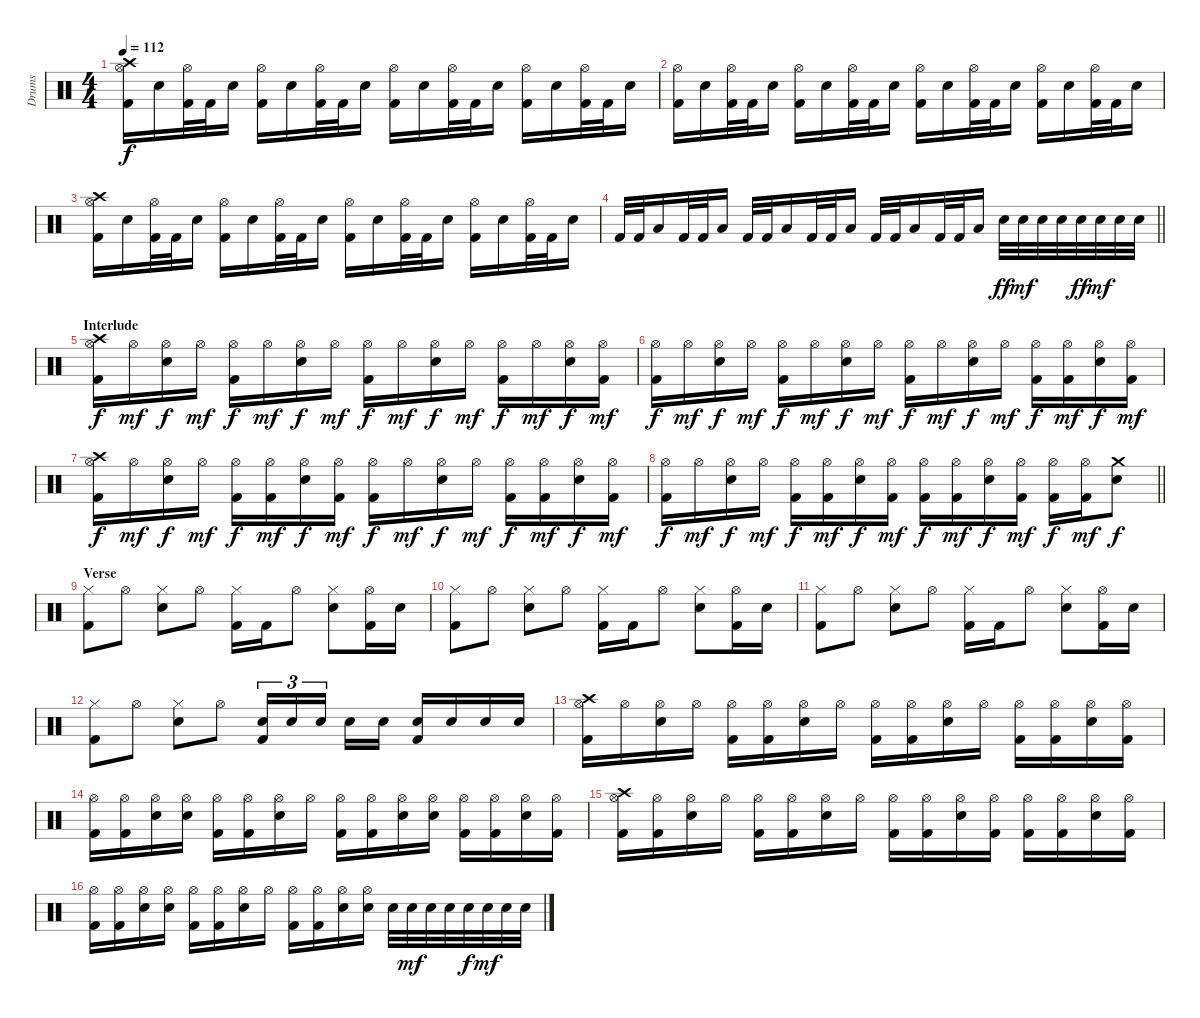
\track ("Drums" "Drums") {instrument percussion}
\staff {score}
\articulation defaults
\ts (4 4)
\tempo 112
\clef neutral
\ks c
("Crash high (hit)" "Hi-Hat (open)" "Kick (hit) 2").16{dy f} "Electric Snare (hit)".16 ("Hi-Hat (open)" "Kick (hit) 2").32 "Kick (hit) 2".32 "Electric Snare (hit)".16 ("Hi-Hat (open)" "Kick (hit) 2").16 "Electric Snare (hit)".16 ("Hi-Hat (open)" "Kick (hit) 2").32 "Kick (hit) 2".32 "Electric Snare (hit)".16 ("Hi-Hat (open)" "Kick (hit) 2").16 "Electric Snare (hit)".16 ("Hi-Hat (open)" "Kick (hit) 2").32 "Kick (hit) 2".32 "Electric Snare (hit)".16 ("Hi-Hat (open)" "Kick (hit) 2").16 "Electric Snare (hit)".16 ("Hi-Hat (open)" "Kick (hit) 2").32 "Kick (hit) 2".32 "Electric Snare (hit)".16 |
("Hi-Hat (open)" "Kick (hit) 2").16 "Electric Snare (hit)".16 ("Hi-Hat (open)" "Kick (hit) 2").32 "Kick (hit) 2".32 "Electric Snare (hit)".16 ("Hi-Hat (open)" "Kick (hit) 2").16 "Electric Snare (hit)".16 ("Hi-Hat (open)" "Kick (hit) 2").32 "Kick (hit) 2".32 "Electric Snare (hit)".16 ("Hi-Hat (open)" "Kick (hit) 2").16 "Electric Snare (hit)".16 ("Hi-Hat (open)" "Kick (hit) 2").32 "Kick (hit) 2".32 "Electric Snare (hit)".16 ("Hi-Hat (open)" "Kick (hit) 2").16 "Electric Snare (hit)".16 ("Hi-Hat (open)" "Kick (hit) 2").32 "Kick (hit) 2".32 "Electric Snare (hit)".16 |
("Crash high (hit)" "Hi-Hat (open)" "Kick (hit) 2").16 "Electric Snare (hit)".16 ("Hi-Hat (open)" "Kick (hit) 2").32 "Kick (hit) 2".32 "Electric Snare (hit)".16 ("Hi-Hat (open)" "Kick (hit) 2").16 "Electric Snare (hit)".16 ("Hi-Hat (open)" "Kick (hit) 2").32 "Kick (hit) 2".32 "Electric Snare (hit)".16 ("Hi-Hat (open)" "Kick (hit) 2").16 "Electric Snare (hit)".16 ("Hi-Hat (open)" "Kick (hit) 2").32 "Kick (hit) 2".32 "Electric Snare (hit)".16 ("Hi-Hat (open)" "Kick (hit) 2").16 "Electric Snare (hit)".16 ("Hi-Hat (open)" "Kick (hit) 2").32 "Kick (hit) 2".32 "Electric Snare (hit)".16 |
\barLineRight lightlight "Kick (hit) 2".32 "Kick (hit) 2".32 "Low Tom (hit)".16 "Kick (hit) 2".32 "Kick (hit) 2".32 "Low Tom (hit)".16 "Kick (hit) 2".32 "Kick (hit) 2".32 "Low Tom (hit)".16 "Kick (hit) 2".32 "Kick (hit) 2".32 "Low Tom (hit)".16 "Kick (hit) 2".32 "Kick (hit) 2".32 "Low Tom (hit)".16 "Kick (hit) 2".32 "Kick (hit) 2".32 "Low Tom (hit)".16 "Electric Snare (hit)".32{dy ff} "Electric Snare (hit)".32{dy mf} "Electric Snare (hit)".32 "Electric Snare (hit)".32 "Electric Snare (hit)".32{dy ff} "Electric Snare (hit)".32{dy mf} "Electric Snare (hit)".32 "Electric Snare (hit)".32
|
\section ("" "Interlude")
("Crash high (hit)" "Hi-Hat (open)" "Kick (hit) 2").16{dy f} "Hi-Hat (open)".16{dy mf} ("Hi-Hat (open)" "Electric Snare (hit)").16{dy f} "Hi-Hat (open)".16{dy mf} ("Hi-Hat (open)" "Kick (hit) 2").16{dy f} "Hi-Hat (open)".16{dy mf} ("Hi-Hat (open)" "Electric Snare (hit)").16{dy f} "Hi-Hat (open)".16{dy mf} ("Hi-Hat (open)" "Kick (hit) 2").16{dy f} "Hi-Hat (open)".16{dy mf} ("Hi-Hat (open)" "Electric Snare (hit)").16{dy f} "Hi-Hat (open)".16{dy mf} ("Hi-Hat (open)" "Kick (hit) 2").16{dy f} "Hi-Hat (open)".16{dy mf} ("Hi-Hat (open)" "Electric Snare (hit)").16{dy f} ("Hi-Hat (open)" "Kick (hit) 2").16{dy mf} |
("Hi-Hat (open)" "Kick (hit) 2").16{dy f} "Hi-Hat (open)".16{dy mf} ("Hi-Hat (open)" "Electric Snare (hit)").16{dy f} "Hi-Hat (open)".16{dy mf} ("Hi-Hat (open)" "Kick (hit) 2").16{dy f} "Hi-Hat (open)".16{dy mf} ("Hi-Hat (open)" "Electric Snare (hit)").16{dy f} "Hi-Hat (open)".16{dy mf} ("Hi-Hat (open)" "Kick (hit) 2").16{dy f} "Hi-Hat (open)".16{dy mf} ("Hi-Hat (open)" "Electric Snare (hit)").16{dy f} "Hi-Hat (open)".16{dy mf} ("Hi-Hat (open)" "Kick (hit) 2").16{dy f} ("Hi-Hat (open)" "Kick (hit) 2").16{dy mf} ("Hi-Hat (open)" "Electric Snare (hit)").16{dy f} ("Hi-Hat (open)" "Kick (hit) 2").16{dy mf} |
("Crash high (hit)" "Hi-Hat (open)" "Kick (hit) 2").16{dy f} "Hi-Hat (open)".16{dy mf} ("Hi-Hat (open)" "Electric Snare (hit)").16{dy f} "Hi-Hat (open)".16{dy mf} ("Hi-Hat (open)" "Kick (hit) 2").16{dy f} ("Hi-Hat (open)" "Kick (hit) 2").16{dy mf} ("Hi-Hat (open)" "Electric Snare (hit)").16{dy f} ("Hi-Hat (open)" "Kick (hit) 2").16{dy mf} ("Hi-Hat (open)" "Kick (hit) 2").16{dy f} "Hi-Hat (open)".16{dy mf} ("Hi-Hat (open)" "Electric Snare (hit)").16{dy f} "Hi-Hat (open)".16{dy mf} ("Hi-Hat (open)" "Kick (hit) 2").16{dy f} ("Hi-Hat (open)" "Kick (hit) 2").16{dy mf} ("Hi-Hat (open)" "Electric Snare (hit)").16{dy f} ("Hi-Hat (open)" "Kick (hit) 2").16{dy mf} |
\barLineRight lightlight
("Hi-Hat (open)" "Kick (hit) 2").16{dy f} "Hi-Hat (open)".16{dy mf} ("Hi-Hat (open)" "Electric Snare (hit)").16{dy f} "Hi-Hat (open)".16{dy mf} ("Hi-Hat (open)" "Kick (hit) 2").16{dy f} ("Hi-Hat (open)" "Kick (hit) 2").16{dy mf} ("Hi-Hat (open)" "Electric Snare (hit)").16{dy f} ("Hi-Hat (open)" "Kick (hit) 2").16{dy mf} ("Hi-Hat (open)" "Kick (hit) 2").16{dy f} ("Hi-Hat (open)" "Kick (hit) 2").16{dy mf} ("Hi-Hat (open)" "Electric Snare (hit)").16{dy f} ("Hi-Hat (open)" "Kick (hit) 2").16{dy mf} ("Hi-Hat (open)" "Kick (hit) 2").16{dy f} ("Hi-Hat (open)" "Kick (hit) 2").16{dy mf} ("Crash medium (hit)" "Electric Snare (hit)").8{dy f} |
\section ("" "Verse")
("Hi-Hat (closed)" "Kick (hit) 2").8 "Hi-Hat (open)".8 ("Hi-Hat (closed)" "Electric Snare (hit)").8 "Hi-Hat (open)".8 ("Hi-Hat (closed)" "Kick (hit) 2").16 "Kick (hit) 2".16 "Hi-Hat (open)".8 ("Hi-Hat (closed)" "Electric Snare (hit)").8 ("Hi-Hat (open)" "Kick (hit) 2").16 "Electric Snare (hit)".16 |
("Hi-Hat (closed)" "Kick (hit) 2").8 "Hi-Hat (open)".8 ("Hi-Hat (closed)" "Electric Snare (hit)").8 "Hi-Hat (open)".8 ("Hi-Hat (closed)" "Kick (hit) 2").16 "Kick (hit) 2".16 "Hi-Hat (open)".8 ("Hi-Hat (closed)" "Electric Snare (hit)").8 ("Hi-Hat (open)" "Kick (hit) 2").16 "Electric Snare (hit)".16 |
("Hi-Hat (closed)" "Kick (hit) 2").8 "Hi-Hat (open)".8 ("Hi-Hat (closed)" "Electric Snare (hit)").8 "Hi-Hat (open)".8 ("Hi-Hat (closed)" "Kick (hit) 2").16 "Kick (hit) 2".16 "Hi-Hat (open)".8 ("Hi-Hat (closed)" "Electric Snare (hit)").8 ("Hi-Hat (open)" "Kick (hit) 2").16 "Electric Snare (hit)".16 |
("Hi-Hat (closed)" "Kick (hit) 2").8 "Hi-Hat (open)".8 ("Hi-Hat (closed)" "Electric Snare (hit)").8 "Hi-Hat (open)".8 ("Electric Snare (hit)" "Kick (hit) 2").16{tu (3 2)} "Electric Snare (hit)".16{tu (3 2)} "Electric Snare (hit)".16{tu (3 2) beam splitsecondary} "Electric Snare (hit)".16 "Electric Snare (hit)".16 ("Electric Snare (hit)" "Kick (hit) 2").16 "Electric Snare (hit)".16 "Electric Snare (hit)".16 "Electric Snare (hit)".16 |
("Crash high (hit)" "Hi-Hat (open)" "Kick (hit) 2").16 "Hi-Hat (open)".16 ("Hi-Hat (open)" "Electric Snare (hit)").16 "Hi-Hat (open)".16 ("Hi-Hat (open)" "Kick (hit) 2").16 ("Hi-Hat (open)" "Kick (hit) 2").16 ("Hi-Hat (open)" "Electric Snare (hit)").16 "Hi-Hat (open)".16 ("Hi-Hat (open)" "Kick (hit) 2").16 ("Hi-Hat (open)" "Kick (hit) 2").16 ("Hi-Hat (open)" "Electric Snare (hit)").16 "Hi-Hat (open)".16 ("Hi-Hat (open)" "Kick (hit) 2").16 ("Hi-Hat (open)" "Kick (hit) 2").16 ("Hi-Hat (open)" "Electric Snare (hit)").16 ("Hi-Hat (open)" "Kick (hit) 2").16 |
("Hi-Hat (open)" "Kick (hit) 2").16 ("Hi-Hat (open)" "Kick (hit) 2").16 ("Hi-Hat (open)" "Electric Snare (hit)").16 ("Hi-Hat (open)" "Electric Snare (hit)").16 ("Hi-Hat (open)" "Kick (hit) 2").16 ("Hi-Hat (open)" "Kick (hit) 2").16 ("Hi-Hat (open)" "Electric Snare (hit)").16 "Hi-Hat (open)".16 ("Hi-Hat (open)" "Kick (hit) 2").16 ("Hi-Hat (open)" "Kick (hit) 2").16 ("Hi-Hat (open)" "Electric Snare (hit)").16 ("Hi-Hat (open)" "Electric Snare (hit)").16 ("Hi-Hat (open)" "Kick (hit) 2").16 ("Hi-Hat (open)" "Kick (hit) 2").16 ("Hi-Hat (open)" "Electric Snare (hit)").16 ("Hi-Hat (open)" "Kick (hit) 2").16 |
("Crash high (hit)" "Hi-Hat (open)" "Kick (hit) 2").16 ("Hi-Hat (open)" "Kick (hit) 2").16 ("Hi-Hat (open)" "Electric Snare (hit)").16 "Hi-Hat (open)".16 ("Hi-Hat (open)" "Kick (hit) 2").16 ("Hi-Hat (open)" "Kick (hit) 2").16 ("Hi-Hat (open)" "Electric Snare (hit)").16 "Hi-Hat (open)".16 ("Hi-Hat (open)" "Kick (hit) 2").16 ("Hi-Hat (open)" "Kick (hit) 2").16 ("Hi-Hat (open)" "Electric Snare (hit)").16 ("Hi-Hat (open)" "Kick (hit) 2").16 ("Hi-Hat (open)" "Kick (hit) 2").16 ("Hi-Hat (open)" "Kick (hit) 2").16 ("Hi-Hat (open)" "Electric Snare (hit)").16 ("Hi-Hat (open)" "Kick (hit) 2").16 |
("Hi-Hat (open)" "Kick (hit) 2").16 ("Hi-Hat (open)" "Kick (hit) 2").16 ("Hi-Hat (open)" "Electric Snare (hit)").16 ("Hi-Hat (open)" "Electric Snare (hit)").16 ("Hi-Hat (open)" "Kick (hit) 2").16 ("Hi-Hat (open)" "Kick (hit) 2").16 ("Hi-Hat (open)" "Electric Snare (hit)").16 "Hi-Hat (open)".16 ("Hi-Hat (open)" "Kick (hit) 2").16 ("Hi-Hat (open)" "Kick (hit) 2").16 ("Hi-Hat (open)" "Electric Snare (hit)").16 ("Hi-Hat (open)" "Electric Snare (hit)").16 "Electric Snare (hit)".32 "Electric Snare (hit)".32{dy mf} "Electric Snare (hit)".32 "Electric Snare (hit)".32 "Electric Snare (hit)".32{dy f} "Electric Snare (hit)".32{dy mf} "Electric Snare (hit)".32 "Electric Snare (hit)".32
